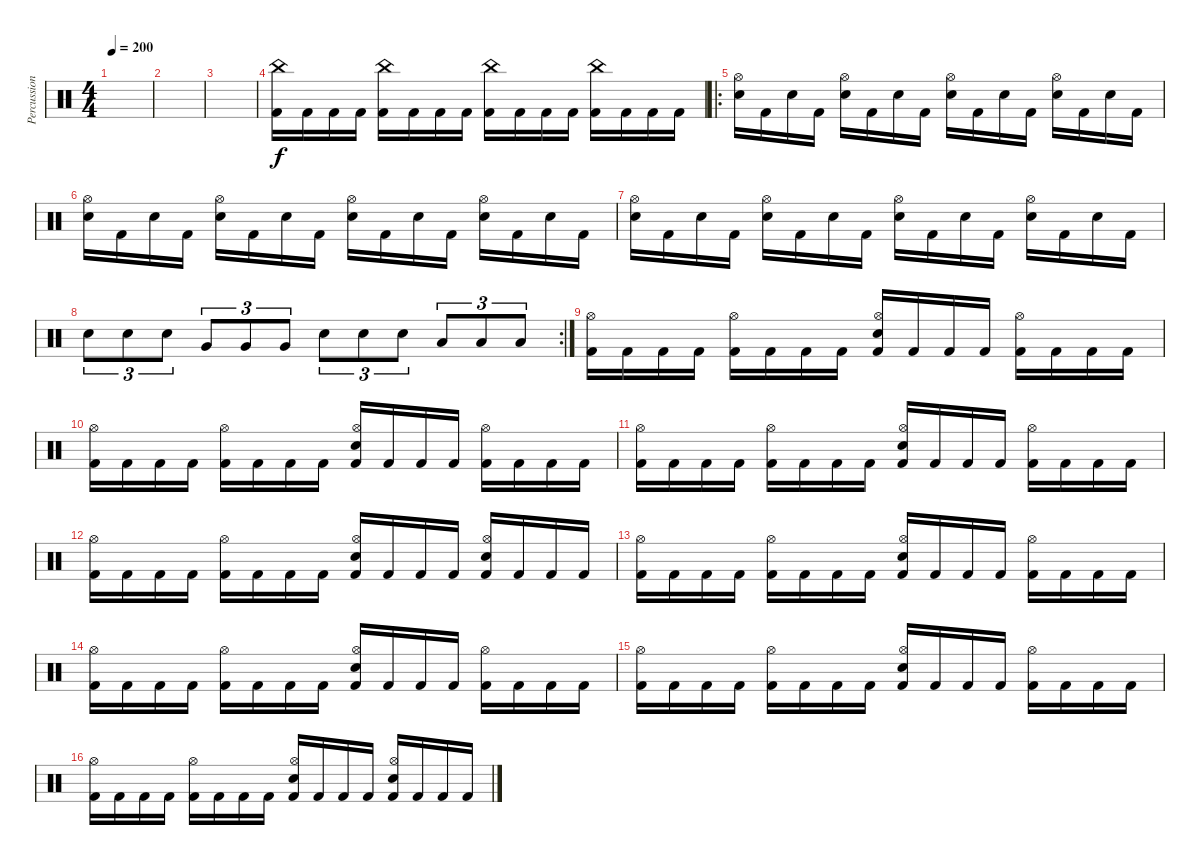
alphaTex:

\track ("Percussions" "Percussion") {instrument percussion}
\staff {score}
\articulation defaults
\ts (4 4)
\tempo 200
\clef neutral
\ks c
|
|
|
("China (hit)" "Kick (hit) 2").16 "Kick (hit) 2".16 "Kick (hit) 2".16 "Kick (hit) 2".16 ("China (hit)" "Kick (hit) 2").16 "Kick (hit) 2".16 "Kick (hit) 2".16 "Kick (hit) 2".16 ("China (hit)" "Kick (hit) 2").16 "Kick (hit) 2".16 "Kick (hit) 2".16 "Kick (hit) 2".16 ("China (hit)" "Kick (hit) 2").16 "Kick (hit) 2".16 "Kick (hit) 2".16 "Kick (hit) 2".16 |
\ro
("Hi-Hat (open)" "Snare (hit) 2").16 "Kick (hit) 2".16 "Snare (hit) 2".16 "Kick (hit) 2".16 ("Hi-Hat (open)" "Snare (hit) 2").16 "Kick (hit) 2".16 "Snare (hit) 2".16 "Kick (hit) 2".16 ("Hi-Hat (open)" "Snare (hit) 2").16 "Kick (hit) 2".16 "Snare (hit) 2".16 "Kick (hit) 2".16 ("Hi-Hat (open)" "Snare (hit) 2").16 "Kick (hit) 2".16 "Snare (hit) 2".16 "Kick (hit) 2".16 |
("Hi-Hat (open)" "Snare (hit) 2").16 "Kick (hit) 2".16 "Snare (hit) 2".16 "Kick (hit) 2".16 ("Hi-Hat (open)" "Snare (hit) 2").16 "Kick (hit) 2".16 "Snare (hit) 2".16 "Kick (hit) 2".16 ("Hi-Hat (open)" "Snare (hit) 2").16 "Kick (hit) 2".16 "Snare (hit) 2".16 "Kick (hit) 2".16 ("Hi-Hat (open)" "Snare (hit) 2").16 "Kick (hit) 2".16 "Snare (hit) 2".16 "Kick (hit) 2".16 |
("Hi-Hat (open)" "Snare (hit) 2").16 "Kick (hit) 2".16 "Snare (hit) 2".16 "Kick (hit) 2".16 ("Hi-Hat (open)" "Snare (hit) 2").16 "Kick (hit) 2".16 "Snare (hit) 2".16 "Kick (hit) 2".16 ("Hi-Hat (open)" "Snare (hit) 2").16 "Kick (hit) 2".16 "Snare (hit) 2".16 "Kick (hit) 2".16 ("Hi-Hat (open)" "Snare (hit) 2").16 "Kick (hit) 2".16 "Snare (hit) 2".16 "Kick (hit) 2".16 |
\rc 2 "Snare (hit) 2".8{tu (3 2)} "Snare (hit) 2".8{tu (3 2)} "Snare (hit) 2".8{tu (3 2)} "Very Low Tom (hit)".8{tu (3 2)} "Very Low Tom (hit)".8{tu (3 2)} "Very Low Tom (hit)".8{tu (3 2)} "Snare (hit) 2".8{tu (3 2)} "Snare (hit) 2".8{tu (3 2)} "Snare (hit) 2".8{tu (3 2)} "Low Tom (hit)".8{tu (3 2)} "Low Tom (hit)".8{tu (3 2)} "Low Tom (hit)".8{tu (3 2)}
|
("Hi-Hat (open)" "Kick (hit) 2").16 "Kick (hit) 2".16 "Kick (hit) 2".16 "Kick (hit) 2".16 ("Hi-Hat (open)" "Kick (hit) 2").16 "Kick (hit) 2".16 "Kick (hit) 2".16 "Kick (hit) 2".16 ("Hi-Hat (open)" "Snare (hit) 2" "Kick (hit) 2").16 "Kick (hit) 2".16 "Kick (hit) 2".16 "Kick (hit) 2".16 ("Hi-Hat (open)" "Kick (hit) 2").16 "Kick (hit) 2".16 "Kick (hit) 2".16 "Kick (hit) 2".16 |
("Hi-Hat (open)" "Kick (hit) 2").16 "Kick (hit) 2".16 "Kick (hit) 2".16 "Kick (hit) 2".16 ("Hi-Hat (open)" "Kick (hit) 2").16 "Kick (hit) 2".16 "Kick (hit) 2".16 "Kick (hit) 2".16 ("Hi-Hat (open)" "Snare (hit) 2" "Kick (hit) 2").16 "Kick (hit) 2".16 "Kick (hit) 2".16 "Kick (hit) 2".16 ("Hi-Hat (open)" "Kick (hit) 2").16 "Kick (hit) 2".16 "Kick (hit) 2".16 "Kick (hit) 2".16 |
("Hi-Hat (open)" "Kick (hit) 2").16 "Kick (hit) 2".16 "Kick (hit) 2".16 "Kick (hit) 2".16 ("Hi-Hat (open)" "Kick (hit) 2").16 "Kick (hit) 2".16 "Kick (hit) 2".16 "Kick (hit) 2".16 ("Hi-Hat (open)" "Snare (hit) 2" "Kick (hit) 2").16 "Kick (hit) 2".16 "Kick (hit) 2".16 "Kick (hit) 2".16 ("Hi-Hat (open)" "Kick (hit) 2").16 "Kick (hit) 2".16 "Kick (hit) 2".16 "Kick (hit) 2".16 |
("Hi-Hat (open)" "Kick (hit) 2").16 "Kick (hit) 2".16 "Kick (hit) 2".16 "Kick (hit) 2".16 ("Hi-Hat (open)" "Kick (hit) 2").16 "Kick (hit) 2".16 "Kick (hit) 2".16 "Kick (hit) 2".16 ("Hi-Hat (open)" "Snare (hit) 2" "Kick (hit) 2").16 "Kick (hit) 2".16 "Kick (hit) 2".16 "Kick (hit) 2".16 ("Hi-Hat (open)" "Snare (hit) 2" "Kick (hit) 2").16 "Kick (hit) 2".16 "Kick (hit) 2".16 "Kick (hit) 2".16 |
("Hi-Hat (open)" "Kick (hit) 2").16 "Kick (hit) 2".16 "Kick (hit) 2".16 "Kick (hit) 2".16 ("Hi-Hat (open)" "Kick (hit) 2").16 "Kick (hit) 2".16 "Kick (hit) 2".16 "Kick (hit) 2".16 ("Hi-Hat (open)" "Snare (hit) 2" "Kick (hit) 2").16 "Kick (hit) 2".16 "Kick (hit) 2".16 "Kick (hit) 2".16 ("Hi-Hat (open)" "Kick (hit) 2").16 "Kick (hit) 2".16 "Kick (hit) 2".16 "Kick (hit) 2".16 |
("Hi-Hat (open)" "Kick (hit) 2").16 "Kick (hit) 2".16 "Kick (hit) 2".16 "Kick (hit) 2".16 ("Hi-Hat (open)" "Kick (hit) 2").16 "Kick (hit) 2".16 "Kick (hit) 2".16 "Kick (hit) 2".16 ("Hi-Hat (open)" "Snare (hit) 2" "Kick (hit) 2").16 "Kick (hit) 2".16 "Kick (hit) 2".16 "Kick (hit) 2".16 ("Hi-Hat (open)" "Kick (hit) 2").16 "Kick (hit) 2".16 "Kick (hit) 2".16 "Kick (hit) 2".16 |
("Hi-Hat (open)" "Kick (hit) 2").16 "Kick (hit) 2".16 "Kick (hit) 2".16 "Kick (hit) 2".16 ("Hi-Hat (open)" "Kick (hit) 2").16 "Kick (hit) 2".16 "Kick (hit) 2".16 "Kick (hit) 2".16 ("Hi-Hat (open)" "Snare (hit) 2" "Kick (hit) 2").16 "Kick (hit) 2".16 "Kick (hit) 2".16 "Kick (hit) 2".16 ("Hi-Hat (open)" "Kick (hit) 2").16 "Kick (hit) 2".16 "Kick (hit) 2".16 "Kick (hit) 2".16 |
("Hi-Hat (open)" "Kick (hit) 2").16 "Kick (hit) 2".16 "Kick (hit) 2".16 "Kick (hit) 2".16 ("Hi-Hat (open)" "Kick (hit) 2").16 "Kick (hit) 2".16 "Kick (hit) 2".16 "Kick (hit) 2".16 ("Hi-Hat (open)" "Snare (hit) 2" "Kick (hit) 2").16 "Kick (hit) 2".16 "Kick (hit) 2".16 "Kick (hit) 2".16 ("Hi-Hat (open)" "Snare (hit) 2" "Kick (hit) 2").16 "Kick (hit) 2".16 "Kick (hit) 2".16 "Kick (hit) 2".16
